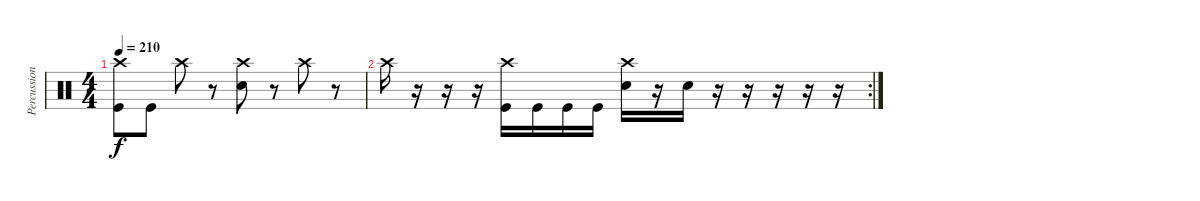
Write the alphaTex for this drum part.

\track ("Percussion" "Percussion") {instrument percussion}
\staff {score}
\articulation defaults
\ts (4 4)
\tempo 210
\clef neutral
\ks c
("Kick (hit)" "Crash high (hit)").8{dy f} "Kick (hit)".8 "Crash high (hit)".8 r.8 ("Electric Snare (hit)" "Crash high (hit)").8 r.8 "Crash high (hit)".8 r.8 |
\rc 2 "Crash high (hit)".16
r.16 r.16 r.16 ("Kick (hit)" "Crash high (hit)").16 "Kick (hit)".16 "Kick (hit)".16 "Kick (hit)".16 ("Electric Snare (hit)" "Crash high (hit)").16 r.16 "Electric Snare (hit)".16 r.16 r.16 r.16 r.16 r.16
